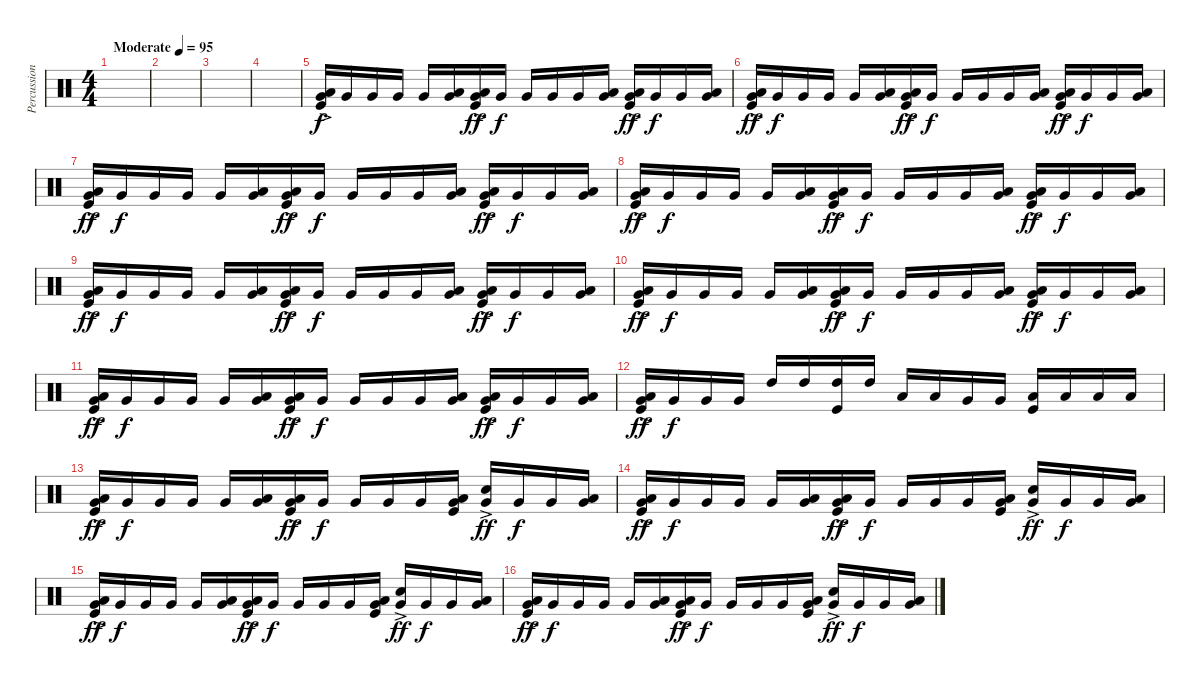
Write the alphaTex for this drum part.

\track ("Percussion" "Percussion") {instrument percussion}
\staff {score}
\articulation defaults
\ts (4 4)
\tempo (95 "Moderate")
\clef neutral
\ks c
|
|
|
|
("Low Floor Tom (hit)"{ac} "Very Low Tom (hit)" "Kick (hit)").16 "Very Low Tom (hit)".16{dy f} "Very Low Tom (hit)".16 "Very Low Tom (hit)".16 "Very Low Tom (hit)".16 ("Low Floor Tom (hit)" "Very Low Tom (hit)").16 ("Low Floor Tom (hit)"{ac} "Very Low Tom (hit)" "Kick (hit)").16{dy ff} "Very Low Tom (hit)".16{dy f} "Very Low Tom (hit)".16 "Very Low Tom (hit)".16 "Very Low Tom (hit)".16 ("Low Floor Tom (hit)" "Very Low Tom (hit)").16 ("Low Floor Tom (hit)"{ac} "Very Low Tom (hit)" "Kick (hit)").16{dy ff} "Very Low Tom (hit)".16{dy f} "Very Low Tom (hit)".16 ("Low Floor Tom (hit)" "Very Low Tom (hit)").16 |
("Low Floor Tom (hit)"{ac} "Very Low Tom (hit)" "Kick (hit)").16{dy ff} "Very Low Tom (hit)".16{dy f} "Very Low Tom (hit)".16 "Very Low Tom (hit)".16 "Very Low Tom (hit)".16 ("Low Floor Tom (hit)" "Very Low Tom (hit)").16 ("Low Floor Tom (hit)"{ac} "Very Low Tom (hit)" "Kick (hit)").16{dy ff} "Very Low Tom (hit)".16{dy f} "Very Low Tom (hit)".16 "Very Low Tom (hit)".16 "Very Low Tom (hit)".16 ("Low Floor Tom (hit)" "Very Low Tom (hit)").16 ("Low Floor Tom (hit)"{ac} "Very Low Tom (hit)" "Kick (hit)").16{dy ff} "Very Low Tom (hit)".16{dy f} "Very Low Tom (hit)".16 ("Low Floor Tom (hit)" "Very Low Tom (hit)").16 |
("Low Floor Tom (hit)"{ac} "Very Low Tom (hit)" "Kick (hit)").16{dy ff} "Very Low Tom (hit)".16{dy f} "Very Low Tom (hit)".16 "Very Low Tom (hit)".16 "Very Low Tom (hit)".16 ("Low Floor Tom (hit)" "Very Low Tom (hit)").16 ("Low Floor Tom (hit)"{ac} "Very Low Tom (hit)" "Kick (hit)").16{dy ff} "Very Low Tom (hit)".16{dy f} "Very Low Tom (hit)".16 "Very Low Tom (hit)".16 "Very Low Tom (hit)".16 ("Low Floor Tom (hit)" "Very Low Tom (hit)").16 ("Low Floor Tom (hit)"{ac} "Very Low Tom (hit)" "Kick (hit)").16{dy ff} "Very Low Tom (hit)".16{dy f} "Very Low Tom (hit)".16 ("Low Floor Tom (hit)" "Very Low Tom (hit)").16 |
("Low Floor Tom (hit)"{ac} "Very Low Tom (hit)" "Kick (hit)").16{dy ff} "Very Low Tom (hit)".16{dy f} "Very Low Tom (hit)".16 "Very Low Tom (hit)".16 "Very Low Tom (hit)".16 ("Low Floor Tom (hit)" "Very Low Tom (hit)").16 ("Low Floor Tom (hit)"{ac} "Very Low Tom (hit)" "Kick (hit)").16{dy ff} "Very Low Tom (hit)".16{dy f} "Very Low Tom (hit)".16 "Very Low Tom (hit)".16 "Very Low Tom (hit)".16 ("Low Floor Tom (hit)" "Very Low Tom (hit)").16 ("Low Floor Tom (hit)"{ac} "Very Low Tom (hit)" "Kick (hit)").16{dy ff} "Very Low Tom (hit)".16{dy f} "Very Low Tom (hit)".16 ("Low Floor Tom (hit)" "Very Low Tom (hit)").16 |
("Low Floor Tom (hit)"{ac} "Very Low Tom (hit)" "Kick (hit)").16{dy ff} "Very Low Tom (hit)".16{dy f} "Very Low Tom (hit)".16 "Very Low Tom (hit)".16 "Very Low Tom (hit)".16 ("Low Floor Tom (hit)" "Very Low Tom (hit)").16 ("Low Floor Tom (hit)"{ac} "Very Low Tom (hit)" "Kick (hit)").16{dy ff} "Very Low Tom (hit)".16{dy f} "Very Low Tom (hit)".16 "Very Low Tom (hit)".16 "Very Low Tom (hit)".16 ("Low Floor Tom (hit)" "Very Low Tom (hit)").16 ("Low Floor Tom (hit)"{ac} "Very Low Tom (hit)" "Kick (hit)").16{dy ff} "Very Low Tom (hit)".16{dy f} "Very Low Tom (hit)".16 ("Low Floor Tom (hit)" "Very Low Tom (hit)").16 |
("Low Floor Tom (hit)"{ac} "Very Low Tom (hit)" "Kick (hit)").16{dy ff} "Very Low Tom (hit)".16{dy f} "Very Low Tom (hit)".16 "Very Low Tom (hit)".16 "Very Low Tom (hit)".16 ("Low Floor Tom (hit)" "Very Low Tom (hit)").16 ("Low Floor Tom (hit)"{ac} "Very Low Tom (hit)" "Kick (hit)").16{dy ff} "Very Low Tom (hit)".16{dy f} "Very Low Tom (hit)".16 "Very Low Tom (hit)".16 "Very Low Tom (hit)".16 ("Low Floor Tom (hit)" "Very Low Tom (hit)").16 ("Low Floor Tom (hit)"{ac} "Very Low Tom (hit)" "Kick (hit)").16{dy ff} "Very Low Tom (hit)".16{dy f} "Very Low Tom (hit)".16 ("Low Floor Tom (hit)" "Very Low Tom (hit)").16 |
("Low Floor Tom (hit)"{ac} "Very Low Tom (hit)" "Kick (hit)").16{dy ff} "Very Low Tom (hit)".16{dy f} "Very Low Tom (hit)".16 "Very Low Tom (hit)".16 "Very Low Tom (hit)".16 ("Low Floor Tom (hit)" "Very Low Tom (hit)").16 ("Low Floor Tom (hit)"{ac} "Very Low Tom (hit)" "Kick (hit)").16{dy ff} "Very Low Tom (hit)".16{dy f} "Very Low Tom (hit)".16 "Very Low Tom (hit)".16 "Very Low Tom (hit)".16 ("Low Floor Tom (hit)" "Very Low Tom (hit)").16 ("Low Floor Tom (hit)"{ac} "Very Low Tom (hit)" "Kick (hit)").16{dy ff} "Very Low Tom (hit)".16{dy f} "Very Low Tom (hit)".16 ("Low Floor Tom (hit)" "Very Low Tom (hit)").16 |
("Low Floor Tom (hit)"{ac} "Very Low Tom (hit)" "Kick (hit)").16{dy ff} "Very Low Tom (hit)".16{dy f} "Very Low Tom (hit)".16 "Very Low Tom (hit)".16 "High Tom (hit)".16 "High Tom (hit)".16 ("High Tom (hit)" "Kick (hit)").16 "High Tom (hit)".16 "Low Tom (hit)".16 "Low Tom (hit)".16 "Very Low Tom (hit)".16 "Very Low Tom (hit)".16 ("Low Floor Tom (hit)" "Kick (hit)").16 "Low Floor Tom (hit)".16 "Low Floor Tom (hit)".16 "Low Floor Tom (hit)".16 |
("Low Floor Tom (hit)"{ac} "Very Low Tom (hit)" "Kick (hit)").16{dy ff} "Very Low Tom (hit)".16{dy f} "Very Low Tom (hit)".16 "Very Low Tom (hit)".16 "Very Low Tom (hit)".16 ("Low Floor Tom (hit)" "Very Low Tom (hit)").16 ("Low Floor Tom (hit)"{ac} "Very Low Tom (hit)" "Kick (hit)").16{dy ff} "Very Low Tom (hit)".16{dy f} "Very Low Tom (hit)".16 "Very Low Tom (hit)".16 "Very Low Tom (hit)".16 ("Low Floor Tom (hit)" "Very Low Tom (hit)" "Kick (hit)").16 ("Snare (hit) 2"{ac} "Very Low Tom (hit)").16{dy ff} "Very Low Tom (hit)".16{dy f} "Very Low Tom (hit)".16 ("Low Floor Tom (hit)" "Very Low Tom (hit)").16 |
("Low Floor Tom (hit)"{ac} "Very Low Tom (hit)" "Kick (hit)").16{dy ff} "Very Low Tom (hit)".16{dy f} "Very Low Tom (hit)".16 "Very Low Tom (hit)".16 "Very Low Tom (hit)".16 ("Low Floor Tom (hit)" "Very Low Tom (hit)").16 ("Low Floor Tom (hit)"{ac} "Very Low Tom (hit)" "Kick (hit)").16{dy ff} "Very Low Tom (hit)".16{dy f} "Very Low Tom (hit)".16 "Very Low Tom (hit)".16 "Very Low Tom (hit)".16 ("Low Floor Tom (hit)" "Very Low Tom (hit)" "Kick (hit)").16 ("Snare (hit) 2"{ac} "Very Low Tom (hit)").16{dy ff} "Very Low Tom (hit)".16{dy f} "Very Low Tom (hit)".16 ("Low Floor Tom (hit)" "Very Low Tom (hit)").16 |
("Low Floor Tom (hit)"{ac} "Very Low Tom (hit)" "Kick (hit)").16{dy ff} "Very Low Tom (hit)".16{dy f} "Very Low Tom (hit)".16 "Very Low Tom (hit)".16 "Very Low Tom (hit)".16 ("Low Floor Tom (hit)" "Very Low Tom (hit)").16 ("Low Floor Tom (hit)"{ac} "Very Low Tom (hit)" "Kick (hit)").16{dy ff} "Very Low Tom (hit)".16{dy f} "Very Low Tom (hit)".16 "Very Low Tom (hit)".16 "Very Low Tom (hit)".16 ("Low Floor Tom (hit)" "Very Low Tom (hit)" "Kick (hit)").16 ("Snare (hit) 2"{ac} "Very Low Tom (hit)").16{dy ff} "Very Low Tom (hit)".16{dy f} "Very Low Tom (hit)".16 ("Low Floor Tom (hit)" "Very Low Tom (hit)").16 |
("Low Floor Tom (hit)"{ac} "Very Low Tom (hit)" "Kick (hit)").16{dy ff} "Very Low Tom (hit)".16{dy f} "Very Low Tom (hit)".16 "Very Low Tom (hit)".16 "Very Low Tom (hit)".16 ("Low Floor Tom (hit)" "Very Low Tom (hit)").16 ("Low Floor Tom (hit)"{ac} "Very Low Tom (hit)" "Kick (hit)").16{dy ff} "Very Low Tom (hit)".16{dy f} "Very Low Tom (hit)".16 "Very Low Tom (hit)".16 "Very Low Tom (hit)".16 ("Low Floor Tom (hit)" "Very Low Tom (hit)" "Kick (hit)").16 ("Snare (hit) 2"{ac} "Very Low Tom (hit)").16{dy ff} "Very Low Tom (hit)".16{dy f} "Very Low Tom (hit)".16 ("Low Floor Tom (hit)" "Very Low Tom (hit)").16
